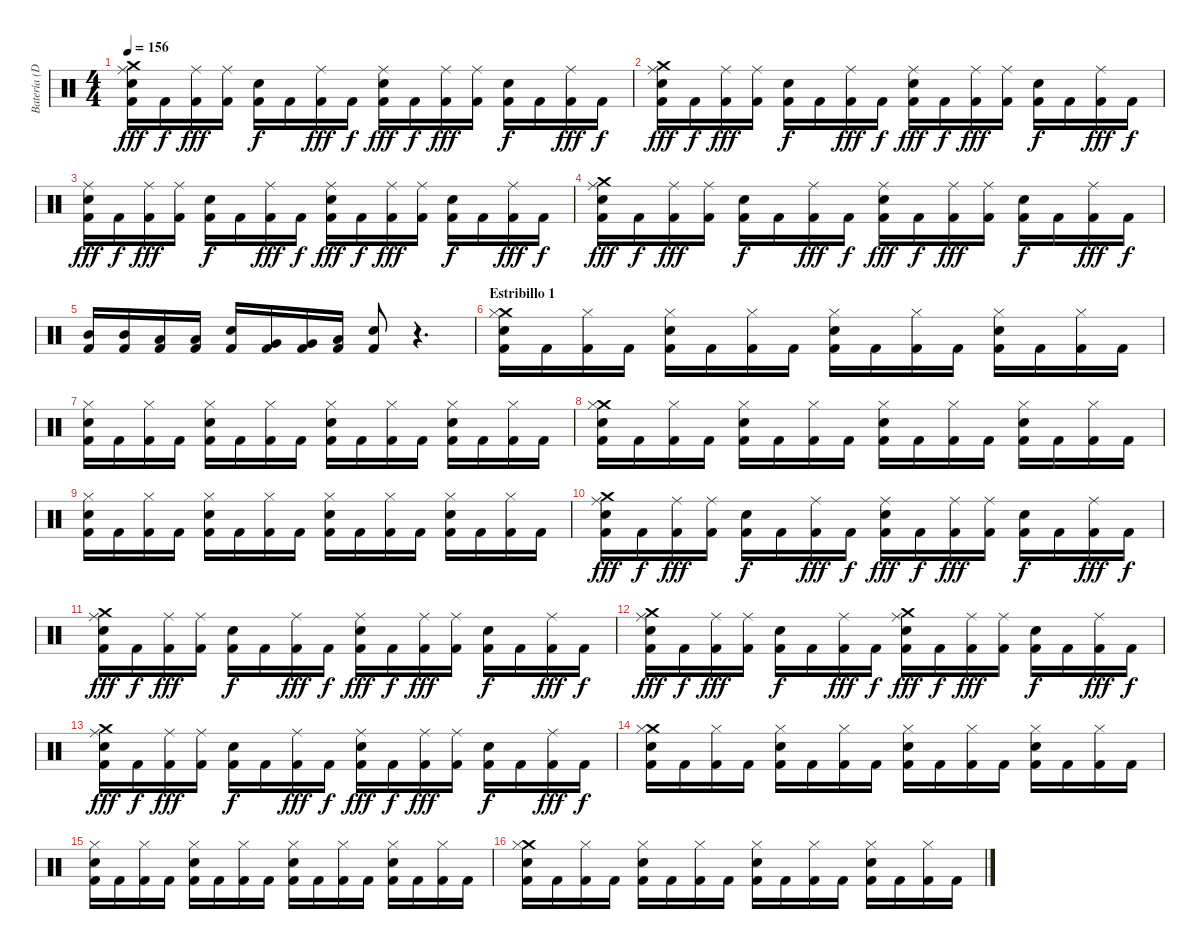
\track ("Batería (Dani)" "Batería (D") {instrument percussion}
\staff {score}
\articulation defaults
\ts (4 4)
\tempo 156
\clef neutral
\ks c
("Crash medium (hit)" "Ride (middle)" "Snare (hit) 2" "Kick (hit) 2").16{dy fff} "Kick (hit) 2".16{dy f} ("Ride (middle)" "Kick (hit) 2").16{dy fff} ("Ride (middle)" "Kick (hit) 2").16 ("Snare (hit) 2" "Kick (hit) 2").16{dy f} "Kick (hit) 2".16 ("Ride (middle)" "Kick (hit) 2").16{dy fff} "Kick (hit) 2".16{dy f} ("Ride (middle)" "Snare (hit) 2" "Kick (hit) 2").16{dy fff} "Kick (hit) 2".16{dy f} ("Ride (middle)" "Kick (hit) 2").16{dy fff} ("Ride (middle)" "Kick (hit) 2").16 ("Snare (hit) 2" "Kick (hit) 2").16{dy f} "Kick (hit) 2".16 ("Ride (middle)" "Kick (hit) 2").16{dy fff} "Kick (hit) 2".16{dy f} |
("Crash medium (hit)" "Ride (middle)" "Snare (hit) 2" "Kick (hit) 2").16{dy fff} "Kick (hit) 2".16{dy f} ("Ride (middle)" "Kick (hit) 2").16{dy fff} ("Ride (middle)" "Kick (hit) 2").16 ("Snare (hit) 2" "Kick (hit) 2").16{dy f} "Kick (hit) 2".16 ("Ride (middle)" "Kick (hit) 2").16{dy fff} "Kick (hit) 2".16{dy f} ("Ride (middle)" "Snare (hit) 2" "Kick (hit) 2").16{dy fff} "Kick (hit) 2".16{dy f} ("Ride (middle)" "Kick (hit) 2").16{dy fff} ("Ride (middle)" "Kick (hit) 2").16 ("Snare (hit) 2" "Kick (hit) 2").16{dy f} "Kick (hit) 2".16 ("Ride (middle)" "Kick (hit) 2").16{dy fff} "Kick (hit) 2".16{dy f} |
("Ride (middle)" "Snare (hit) 2" "Kick (hit) 2").16{dy fff} "Kick (hit) 2".16{dy f} ("Ride (middle)" "Kick (hit) 2").16{dy fff} ("Ride (middle)" "Kick (hit) 2").16 ("Snare (hit) 2" "Kick (hit) 2").16{dy f} "Kick (hit) 2".16 ("Ride (middle)" "Kick (hit) 2").16{dy fff} "Kick (hit) 2".16{dy f} ("Ride (middle)" "Snare (hit) 2" "Kick (hit) 2").16{dy fff} "Kick (hit) 2".16{dy f} ("Ride (middle)" "Kick (hit) 2").16{dy fff} ("Ride (middle)" "Kick (hit) 2").16 ("Snare (hit) 2" "Kick (hit) 2").16{dy f} "Kick (hit) 2".16 ("Ride (middle)" "Kick (hit) 2").16{dy fff} "Kick (hit) 2".16{dy f} |
("Crash medium (hit)" "Ride (middle)" "Snare (hit) 2" "Kick (hit) 2").16{dy fff} "Kick (hit) 2".16{dy f} ("Ride (middle)" "Kick (hit) 2").16{dy fff} ("Ride (middle)" "Kick (hit) 2").16 ("Snare (hit) 2" "Kick (hit) 2").16{dy f} "Kick (hit) 2".16 ("Ride (middle)" "Kick (hit) 2").16{dy fff} "Kick (hit) 2".16{dy f} ("Ride (middle)" "Snare (hit) 2" "Kick (hit) 2").16{dy fff} "Kick (hit) 2".16{dy f} ("Ride (middle)" "Kick (hit) 2").16{dy fff} ("Ride (middle)" "Kick (hit) 2").16 ("Snare (hit) 2" "Kick (hit) 2").16{dy f} "Kick (hit) 2".16 ("Ride (middle)" "Kick (hit) 2").16{dy fff} "Kick (hit) 2".16{dy f} |
("Mid Tom (hit)" "Kick (hit) 2").16 ("Mid Tom (hit)" "Kick (hit) 2").16 ("Low Tom (hit)" "Kick (hit) 2").16 ("Low Tom (hit)" "Kick (hit) 2").16 ("Snare (hit) 2" "Kick (hit) 2").16 ("Very Low Tom (hit)" "Kick (hit) 2").16 ("Very Low Tom (hit)" "Kick (hit) 2").16 ("Low Floor Tom (hit)" "Kick (hit) 2").16 ("Snare (hit) 2" "Kick (hit) 2").8 r.4{d} |
\section ("" "Estribillo 1 ")
("Crash medium (hit)" "Hi-Hat (closed)" "Snare (hit) 2" "Kick (hit) 2").16 "Kick (hit) 2".16 ("Hi-Hat (closed)" "Kick (hit) 2").16 "Kick (hit) 2".16 ("Hi-Hat (closed)" "Snare (hit) 2" "Kick (hit) 2").16 "Kick (hit) 2".16 ("Hi-Hat (closed)" "Kick (hit) 2").16 "Kick (hit) 2".16 ("Hi-Hat (closed)" "Snare (hit) 2" "Kick (hit) 2").16 "Kick (hit) 2".16 ("Hi-Hat (closed)" "Kick (hit) 2").16 "Kick (hit) 2".16 ("Hi-Hat (closed)" "Snare (hit) 2" "Kick (hit) 2").16 "Kick (hit) 2".16 ("Hi-Hat (closed)" "Kick (hit) 2").16 "Kick (hit) 2".16 |
("Hi-Hat (closed)" "Snare (hit) 2" "Kick (hit) 2").16 "Kick (hit) 2".16 ("Hi-Hat (closed)" "Kick (hit) 2").16 "Kick (hit) 2".16 ("Hi-Hat (closed)" "Snare (hit) 2" "Kick (hit) 2").16 "Kick (hit) 2".16 ("Hi-Hat (closed)" "Kick (hit) 2").16 "Kick (hit) 2".16 ("Hi-Hat (closed)" "Snare (hit) 2" "Kick (hit) 2").16 "Kick (hit) 2".16 ("Hi-Hat (closed)" "Kick (hit) 2").16 "Kick (hit) 2".16 ("Hi-Hat (closed)" "Snare (hit) 2" "Kick (hit) 2").16 "Kick (hit) 2".16 ("Hi-Hat (closed)" "Kick (hit) 2").16 "Kick (hit) 2".16 |
("Crash medium (hit)" "Hi-Hat (closed)" "Snare (hit) 2" "Kick (hit) 2").16 "Kick (hit) 2".16 ("Hi-Hat (closed)" "Kick (hit) 2").16 "Kick (hit) 2".16 ("Hi-Hat (closed)" "Snare (hit) 2" "Kick (hit) 2").16 "Kick (hit) 2".16 ("Hi-Hat (closed)" "Kick (hit) 2").16 "Kick (hit) 2".16 ("Hi-Hat (closed)" "Snare (hit) 2" "Kick (hit) 2").16 "Kick (hit) 2".16 ("Hi-Hat (closed)" "Kick (hit) 2").16 "Kick (hit) 2".16 ("Hi-Hat (closed)" "Snare (hit) 2" "Kick (hit) 2").16 "Kick (hit) 2".16 ("Hi-Hat (closed)" "Kick (hit) 2").16 "Kick (hit) 2".16 |
("Hi-Hat (closed)" "Snare (hit) 2" "Kick (hit) 2").16 "Kick (hit) 2".16 ("Hi-Hat (closed)" "Kick (hit) 2").16 "Kick (hit) 2".16 ("Hi-Hat (closed)" "Snare (hit) 2" "Kick (hit) 2").16 "Kick (hit) 2".16 ("Hi-Hat (closed)" "Kick (hit) 2").16 "Kick (hit) 2".16 ("Hi-Hat (closed)" "Snare (hit) 2" "Kick (hit) 2").16 "Kick (hit) 2".16 ("Hi-Hat (closed)" "Kick (hit) 2").16 "Kick (hit) 2".16 ("Hi-Hat (closed)" "Snare (hit) 2" "Kick (hit) 2").16 "Kick (hit) 2".16 ("Hi-Hat (closed)" "Kick (hit) 2").16 "Kick (hit) 2".16 |
("Crash medium (hit)" "Ride (middle)" "Snare (hit) 2" "Kick (hit) 2").16{dy fff} "Kick (hit) 2".16{dy f} ("Ride (middle)" "Kick (hit) 2").16{dy fff} ("Ride (middle)" "Kick (hit) 2").16 ("Snare (hit) 2" "Kick (hit) 2").16{dy f} "Kick (hit) 2".16 ("Ride (middle)" "Kick (hit) 2").16{dy fff} "Kick (hit) 2".16{dy f} ("Ride (middle)" "Snare (hit) 2" "Kick (hit) 2").16{dy fff} "Kick (hit) 2".16{dy f} ("Ride (middle)" "Kick (hit) 2").16{dy fff} ("Ride (middle)" "Kick (hit) 2").16 ("Snare (hit) 2" "Kick (hit) 2").16{dy f} "Kick (hit) 2".16 ("Ride (middle)" "Kick (hit) 2").16{dy fff} "Kick (hit) 2".16{dy f} |
("Crash medium (hit)" "Ride (middle)" "Snare (hit) 2" "Kick (hit) 2").16{dy fff} "Kick (hit) 2".16{dy f} ("Ride (middle)" "Kick (hit) 2").16{dy fff} ("Ride (middle)" "Kick (hit) 2").16 ("Snare (hit) 2" "Kick (hit) 2").16{dy f} "Kick (hit) 2".16 ("Ride (middle)" "Kick (hit) 2").16{dy fff} "Kick (hit) 2".16{dy f} ("Ride (middle)" "Snare (hit) 2" "Kick (hit) 2").16{dy fff} "Kick (hit) 2".16{dy f} ("Ride (middle)" "Kick (hit) 2").16{dy fff} ("Ride (middle)" "Kick (hit) 2").16 ("Snare (hit) 2" "Kick (hit) 2").16{dy f} "Kick (hit) 2".16 ("Ride (middle)" "Kick (hit) 2").16{dy fff} "Kick (hit) 2".16{dy f} |
("Crash medium (hit)" "Ride (middle)" "Snare (hit) 2" "Kick (hit) 2").16{dy fff} "Kick (hit) 2".16{dy f} ("Ride (middle)" "Kick (hit) 2").16{dy fff} ("Ride (middle)" "Kick (hit) 2").16 ("Snare (hit) 2" "Kick (hit) 2").16{dy f} "Kick (hit) 2".16 ("Ride (middle)" "Kick (hit) 2").16{dy fff} "Kick (hit) 2".16{dy f} ("Crash medium (hit)" "Ride (middle)" "Snare (hit) 2" "Kick (hit) 2").16{dy fff} "Kick (hit) 2".16{dy f} ("Ride (middle)" "Kick (hit) 2").16{dy fff} ("Ride (middle)" "Kick (hit) 2").16 ("Snare (hit) 2" "Kick (hit) 2").16{dy f} "Kick (hit) 2".16 ("Ride (middle)" "Kick (hit) 2").16{dy fff} "Kick (hit) 2".16{dy f} |
("Crash medium (hit)" "Ride (middle)" "Snare (hit) 2" "Kick (hit) 2").16{dy fff} "Kick (hit) 2".16{dy f} ("Ride (middle)" "Kick (hit) 2").16{dy fff} ("Ride (middle)" "Kick (hit) 2").16 ("Snare (hit) 2" "Kick (hit) 2").16{dy f} "Kick (hit) 2".16 ("Ride (middle)" "Kick (hit) 2").16{dy fff} "Kick (hit) 2".16{dy f} ("Ride (middle)" "Snare (hit) 2" "Kick (hit) 2").16{dy fff} "Kick (hit) 2".16{dy f} ("Ride (middle)" "Kick (hit) 2").16{dy fff} ("Ride (middle)" "Kick (hit) 2").16 ("Snare (hit) 2" "Kick (hit) 2").16{dy f} "Kick (hit) 2".16 ("Ride (middle)" "Kick (hit) 2").16{dy fff} "Kick (hit) 2".16{dy f} |
("Crash medium (hit)" "Hi-Hat (closed)" "Snare (hit) 2" "Kick (hit) 2").16 "Kick (hit) 2".16 ("Hi-Hat (closed)" "Kick (hit) 2").16 "Kick (hit) 2".16 ("Hi-Hat (closed)" "Snare (hit) 2" "Kick (hit) 2").16 "Kick (hit) 2".16 ("Hi-Hat (closed)" "Kick (hit) 2").16 "Kick (hit) 2".16 ("Hi-Hat (closed)" "Snare (hit) 2" "Kick (hit) 2").16 "Kick (hit) 2".16 ("Hi-Hat (closed)" "Kick (hit) 2").16 "Kick (hit) 2".16 ("Hi-Hat (closed)" "Snare (hit) 2" "Kick (hit) 2").16 "Kick (hit) 2".16 ("Hi-Hat (closed)" "Kick (hit) 2").16 "Kick (hit) 2".16 |
("Hi-Hat (closed)" "Snare (hit) 2" "Kick (hit) 2").16 "Kick (hit) 2".16 ("Hi-Hat (closed)" "Kick (hit) 2").16 "Kick (hit) 2".16 ("Hi-Hat (closed)" "Snare (hit) 2" "Kick (hit) 2").16 "Kick (hit) 2".16 ("Hi-Hat (closed)" "Kick (hit) 2").16 "Kick (hit) 2".16 ("Hi-Hat (closed)" "Snare (hit) 2" "Kick (hit) 2").16 "Kick (hit) 2".16 ("Hi-Hat (closed)" "Kick (hit) 2").16 "Kick (hit) 2".16 ("Hi-Hat (closed)" "Snare (hit) 2" "Kick (hit) 2").16 "Kick (hit) 2".16 ("Hi-Hat (closed)" "Kick (hit) 2").16 "Kick (hit) 2".16 |
("Crash medium (hit)" "Hi-Hat (closed)" "Snare (hit) 2" "Kick (hit) 2").16 "Kick (hit) 2".16 ("Hi-Hat (closed)" "Kick (hit) 2").16 "Kick (hit) 2".16 ("Hi-Hat (closed)" "Snare (hit) 2" "Kick (hit) 2").16 "Kick (hit) 2".16 ("Hi-Hat (closed)" "Kick (hit) 2").16 "Kick (hit) 2".16 ("Hi-Hat (closed)" "Snare (hit) 2" "Kick (hit) 2").16 "Kick (hit) 2".16 ("Hi-Hat (closed)" "Kick (hit) 2").16 "Kick (hit) 2".16 ("Hi-Hat (closed)" "Snare (hit) 2" "Kick (hit) 2").16 "Kick (hit) 2".16 ("Hi-Hat (closed)" "Kick (hit) 2").16 "Kick (hit) 2".16
